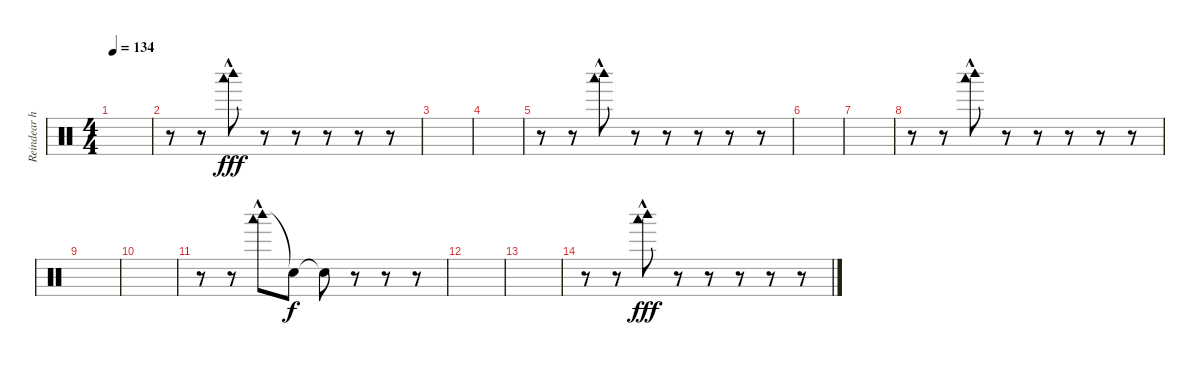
\track ("Reindear horn" "Reindear h") {instrument percussion}
\staff {score}
\articulation defaults
\ts (4 4)
\tempo 134
\clef neutral
\ks c
|
r.8 r.8 ("Woodblock high (hit)" "Woodblock low (hit)"{hac}).8{dy fff} r.8 r.8 r.8 r.8 r.8 |
|
|
r.8 r.8 ("Woodblock high (hit)" "Woodblock low (hit)"{hac}).8 r.8 r.8 r.8 r.8 r.8 |
|
|
r.8 r.8 ("Woodblock high (hit)" "Woodblock low (hit)"{hac}).8 r.8 r.8 r.8 r.8 r.8 |
|
|
r.8 r.8 ("Woodblock high (hit)" "Woodblock low (hit)"{hac}).8 "Snare (hit)"{t}.8{dy f} "Snare (hit)"{t}.8 r.8 r.8 r.8 |
|
|
r.8 r.8 ("Woodblock high (hit)" "Woodblock low (hit)"{hac}).8{dy fff} r.8 r.8 r.8 r.8 r.8
